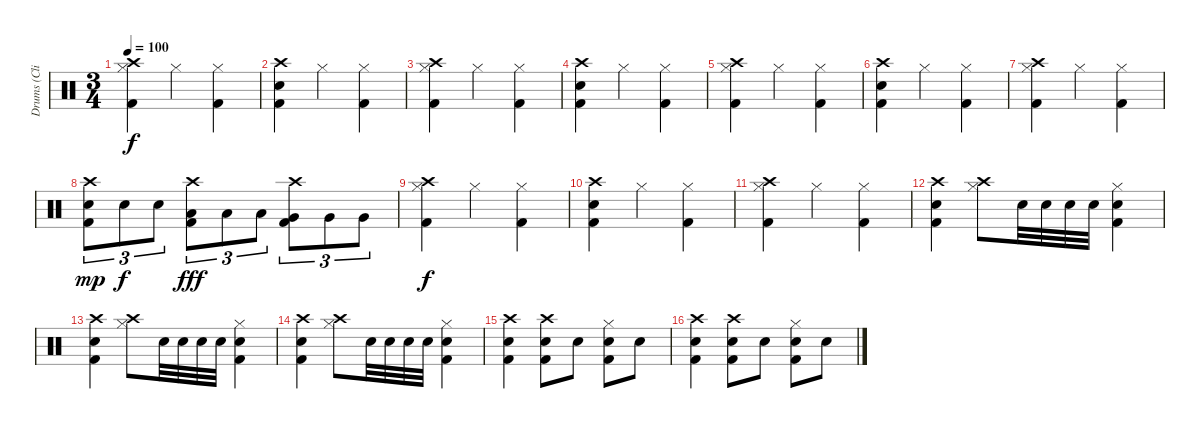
\track ("Drums (Clive Bunker)" "Drums (Cli") {instrument percussion}
\staff {score}
\articulation defaults
\ts (3 4)
\tempo 100
\clef neutral
\ks c
("Crash high (hit)" "Hi-Hat (closed)" "Kick (hit) 2").4{dy f} "Hi-Hat (closed)".4 ("Hi-Hat (closed)" "Kick (hit) 2").4 |
("Crash high (hit)" "Snare (hit) 2" "Kick (hit) 2").4 "Hi-Hat (closed)".4 ("Hi-Hat (closed)" "Kick (hit) 2").4 |
("Crash high (hit)" "Hi-Hat (closed)" "Kick (hit) 2").4 "Hi-Hat (closed)".4 ("Hi-Hat (closed)" "Kick (hit) 2").4 |
("Crash high (hit)" "Snare (hit) 2" "Kick (hit) 2").4 "Hi-Hat (closed)".4 ("Hi-Hat (closed)" "Kick (hit) 2").4 |
("Crash high (hit)" "Hi-Hat (closed)" "Kick (hit) 2").4 "Hi-Hat (closed)".4 ("Hi-Hat (closed)" "Kick (hit) 2").4 |
("Crash high (hit)" "Snare (hit) 2" "Kick (hit) 2").4 "Hi-Hat (closed)".4 ("Hi-Hat (closed)" "Kick (hit) 2").4 |
("Crash high (hit)" "Hi-Hat (closed)" "Kick (hit) 2").4 "Hi-Hat (closed)".4 ("Hi-Hat (closed)" "Kick (hit) 2").4 |
("Crash high (hit)" "Snare (hit) 2" "Kick (hit) 2").8{tu (3 2) dy mp} "Snare (hit) 2".8{tu (3 2) dy f} "Snare (hit) 2".8{tu (3 2)} ("Crash high (hit)" "Low Tom (hit)" "Kick (hit) 2").8{tu (3 2) dy fff} "Low Tom (hit)".8{tu (3 2)} "Low Tom (hit)".8{tu (3 2)} ("Crash high (hit)" "Very Low Tom (hit)" "Kick (hit) 2").8{tu (3 2)} "Very Low Tom (hit)".8{tu (3 2)} "Very Low Tom (hit)".8{tu (3 2)} |
("Crash high (hit)" "Hi-Hat (closed)" "Kick (hit) 2").4{dy f} "Hi-Hat (closed)".4 ("Hi-Hat (closed)" "Kick (hit) 2").4 |
("Crash high (hit)" "Snare (hit) 2" "Kick (hit) 2").4 "Hi-Hat (closed)".4 ("Hi-Hat (closed)" "Kick (hit) 2").4 |
("Crash high (hit)" "Hi-Hat (closed)" "Kick (hit) 2").4 "Hi-Hat (closed)".4 ("Hi-Hat (closed)" "Kick (hit) 2").4 |
("Crash high (hit)" "Snare (hit) 2" "Kick (hit) 2").4 ("Crash high (hit)" "Hi-Hat (closed)").8 "Snare (hit) 2".32 "Snare (hit) 2".32 "Snare (hit) 2".32 "Snare (hit) 2".32 ("Hi-Hat (closed)" "Snare (hit) 2" "Kick (hit) 2").4 |
("Crash high (hit)" "Snare (hit) 2" "Kick (hit) 2").4 ("Crash high (hit)" "Hi-Hat (closed)").8 "Snare (hit) 2".32 "Snare (hit) 2".32 "Snare (hit) 2".32 "Snare (hit) 2".32 ("Hi-Hat (closed)" "Snare (hit) 2" "Kick (hit) 2").4 |
("Crash high (hit)" "Snare (hit) 2" "Kick (hit) 2").4 ("Crash high (hit)" "Hi-Hat (closed)").8 "Snare (hit) 2".32 "Snare (hit) 2".32 "Snare (hit) 2".32 "Snare (hit) 2".32 ("Hi-Hat (closed)" "Snare (hit) 2" "Kick (hit) 2").4 |
("Crash high (hit)" "Snare (hit) 2" "Kick (hit) 2").4 ("Crash high (hit)" "Snare (hit) 2" "Kick (hit) 2").8 "Snare (hit) 2".8 ("Hi-Hat (closed)" "Snare (hit) 2" "Kick (hit) 2").8 "Snare (hit) 2".8 |
("Crash high (hit)" "Snare (hit) 2" "Kick (hit) 2").4 ("Crash high (hit)" "Snare (hit) 2" "Kick (hit) 2").8 "Snare (hit) 2".8 ("Hi-Hat (closed)" "Snare (hit) 2" "Kick (hit) 2").8 "Snare (hit) 2".8
